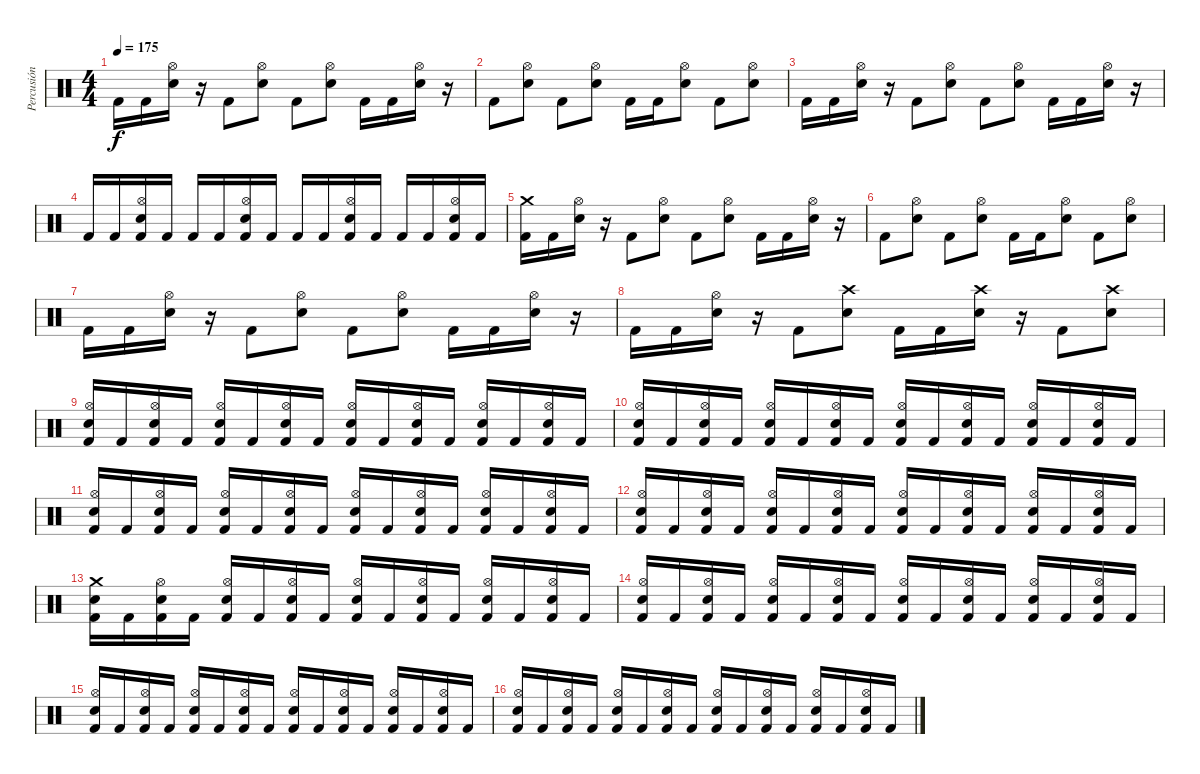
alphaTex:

\track ("Percusión" "Percusión") {instrument percussion}
\staff {score}
\articulation defaults
\ts (4 4)
\tempo 175
\clef neutral
\ks c "Kick (hit) 2".16{dy f} "Kick (hit) 2".16
("Hi-Hat (open)" "Electric Snare (hit)").16 r.16 "Kick (hit) 2".8 ("Hi-Hat (open)" "Electric Snare (hit)").8 "Kick (hit) 2".8 ("Hi-Hat (open)" "Electric Snare (hit)").8 "Kick (hit) 2".16 "Kick (hit) 2".16 ("Hi-Hat (open)" "Electric Snare (hit)").16 r.16 |
"Kick (hit) 2".8 ("Hi-Hat (open)" "Electric Snare (hit)").8 "Kick (hit) 2".8 ("Hi-Hat (open)" "Electric Snare (hit)").8 "Kick (hit) 2".16 "Kick (hit) 2".16 ("Hi-Hat (open)" "Electric Snare (hit)").8 "Kick (hit) 2".8 ("Hi-Hat (open)" "Electric Snare (hit)").8 |
"Kick (hit) 2".16 "Kick (hit) 2".16 ("Hi-Hat (open)" "Electric Snare (hit)").16 r.16 "Kick (hit) 2".8 ("Hi-Hat (open)" "Electric Snare (hit)").8 "Kick (hit) 2".8 ("Hi-Hat (open)" "Electric Snare (hit)").8 "Kick (hit) 2".16 "Kick (hit) 2".16 ("Hi-Hat (open)" "Electric Snare (hit)").16 r.16 |
"Kick (hit) 2".16 "Kick (hit) 2".16 ("Hi-Hat (open)" "Electric Snare (hit)" "Kick (hit) 2").16 "Kick (hit) 2".16 "Kick (hit) 2".16 "Kick (hit) 2".16 ("Hi-Hat (open)" "Electric Snare (hit)" "Kick (hit) 2").16 "Kick (hit) 2".16 "Kick (hit) 2".16 "Kick (hit) 2".16 ("Hi-Hat (open)" "Electric Snare (hit)" "Kick (hit) 2").16 "Kick (hit) 2".16 "Kick (hit) 2".16 "Kick (hit) 2".16 ("Hi-Hat (open)" "Electric Snare (hit)" "Kick (hit) 2").16 "Kick (hit) 2".16 |
("Crash medium (hit)" "Kick (hit) 2").16 "Kick (hit) 2".16 ("Hi-Hat (open)" "Electric Snare (hit)").16 r.16 "Kick (hit) 2".8 ("Hi-Hat (open)" "Electric Snare (hit)").8 "Kick (hit) 2".8 ("Hi-Hat (open)" "Electric Snare (hit)").8 "Kick (hit) 2".16 "Kick (hit) 2".16 ("Hi-Hat (open)" "Electric Snare (hit)").16 r.16 |
"Kick (hit) 2".8 ("Hi-Hat (open)" "Electric Snare (hit)").8 "Kick (hit) 2".8 ("Hi-Hat (open)" "Electric Snare (hit)").8 "Kick (hit) 2".16 "Kick (hit) 2".16 ("Hi-Hat (open)" "Electric Snare (hit)").8 "Kick (hit) 2".8 ("Hi-Hat (open)" "Electric Snare (hit)").8 |
"Kick (hit) 2".16 "Kick (hit) 2".16 ("Hi-Hat (open)" "Electric Snare (hit)").16 r.16 "Kick (hit) 2".8 ("Hi-Hat (open)" "Electric Snare (hit)").8 "Kick (hit) 2".8 ("Hi-Hat (open)" "Electric Snare (hit)").8 "Kick (hit) 2".16 "Kick (hit) 2".16 ("Hi-Hat (open)" "Electric Snare (hit)").16 r.16 |
"Kick (hit) 2".16 "Kick (hit) 2".16 ("Hi-Hat (open)" "Electric Snare (hit)").16 r.16 "Kick (hit) 2".8 ("Crash high (hit)" "Electric Snare (hit)").8 "Kick (hit) 2".16 "Kick (hit) 2".16 ("Crash high (hit)" "Electric Snare (hit)").16 r.16 "Kick (hit) 2".8 ("Crash high (hit)" "Electric Snare (hit)").8 |
("Hi-Hat (open)" "Electric Snare (hit)" "Kick (hit) 2").16 "Kick (hit) 2".16 ("Hi-Hat (open)" "Electric Snare (hit)" "Kick (hit) 2").16 "Kick (hit) 2".16 ("Hi-Hat (open)" "Electric Snare (hit)" "Kick (hit) 2").16 "Kick (hit) 2".16 ("Hi-Hat (open)" "Electric Snare (hit)" "Kick (hit) 2").16 "Kick (hit) 2".16 ("Hi-Hat (open)" "Electric Snare (hit)" "Kick (hit) 2").16 "Kick (hit) 2".16 ("Hi-Hat (open)" "Electric Snare (hit)" "Kick (hit) 2").16 "Kick (hit) 2".16 ("Hi-Hat (open)" "Electric Snare (hit)" "Kick (hit) 2").16 "Kick (hit) 2".16 ("Hi-Hat (open)" "Electric Snare (hit)" "Kick (hit) 2").16 "Kick (hit) 2".16 |
("Hi-Hat (open)" "Electric Snare (hit)" "Kick (hit) 2").16 "Kick (hit) 2".16 ("Hi-Hat (open)" "Electric Snare (hit)" "Kick (hit) 2").16 "Kick (hit) 2".16 ("Hi-Hat (open)" "Electric Snare (hit)" "Kick (hit) 2").16 "Kick (hit) 2".16 ("Hi-Hat (open)" "Electric Snare (hit)" "Kick (hit) 2").16 "Kick (hit) 2".16 ("Hi-Hat (open)" "Electric Snare (hit)" "Kick (hit) 2").16 "Kick (hit) 2".16 ("Hi-Hat (open)" "Electric Snare (hit)" "Kick (hit) 2").16 "Kick (hit) 2".16 ("Hi-Hat (open)" "Electric Snare (hit)" "Kick (hit) 2").16 "Kick (hit) 2".16 ("Hi-Hat (open)" "Electric Snare (hit)" "Kick (hit) 2").16 "Kick (hit) 2".16 |
("Hi-Hat (open)" "Electric Snare (hit)" "Kick (hit) 2").16 "Kick (hit) 2".16 ("Hi-Hat (open)" "Electric Snare (hit)" "Kick (hit) 2").16 "Kick (hit) 2".16 ("Hi-Hat (open)" "Electric Snare (hit)" "Kick (hit) 2").16 "Kick (hit) 2".16 ("Hi-Hat (open)" "Electric Snare (hit)" "Kick (hit) 2").16 "Kick (hit) 2".16 ("Hi-Hat (open)" "Electric Snare (hit)" "Kick (hit) 2").16 "Kick (hit) 2".16 ("Hi-Hat (open)" "Electric Snare (hit)" "Kick (hit) 2").16 "Kick (hit) 2".16 ("Hi-Hat (open)" "Electric Snare (hit)" "Kick (hit) 2").16 "Kick (hit) 2".16 ("Hi-Hat (open)" "Electric Snare (hit)" "Kick (hit) 2").16 "Kick (hit) 2".16 |
("Hi-Hat (open)" "Electric Snare (hit)" "Kick (hit) 2").16 "Kick (hit) 2".16 ("Hi-Hat (open)" "Electric Snare (hit)" "Kick (hit) 2").16 "Kick (hit) 2".16 ("Hi-Hat (open)" "Electric Snare (hit)" "Kick (hit) 2").16 "Kick (hit) 2".16 ("Hi-Hat (open)" "Electric Snare (hit)" "Kick (hit) 2").16 "Kick (hit) 2".16 ("Hi-Hat (open)" "Electric Snare (hit)" "Kick (hit) 2").16 "Kick (hit) 2".16 ("Hi-Hat (open)" "Electric Snare (hit)" "Kick (hit) 2").16 "Kick (hit) 2".16 ("Hi-Hat (open)" "Electric Snare (hit)" "Kick (hit) 2").16 "Kick (hit) 2".16 ("Hi-Hat (open)" "Electric Snare (hit)" "Kick (hit) 2").16 "Kick (hit) 2".16 |
("Crash medium (hit)" "Electric Snare (hit)" "Kick (hit) 2").16 "Kick (hit) 2".16 ("Hi-Hat (open)" "Electric Snare (hit)" "Kick (hit) 2").16 "Kick (hit) 2".16 ("Hi-Hat (open)" "Electric Snare (hit)" "Kick (hit) 2").16 "Kick (hit) 2".16 ("Hi-Hat (open)" "Electric Snare (hit)" "Kick (hit) 2").16 "Kick (hit) 2".16 ("Hi-Hat (open)" "Electric Snare (hit)" "Kick (hit) 2").16 "Kick (hit) 2".16 ("Hi-Hat (open)" "Electric Snare (hit)" "Kick (hit) 2").16 "Kick (hit) 2".16 ("Hi-Hat (open)" "Electric Snare (hit)" "Kick (hit) 2").16 "Kick (hit) 2".16 ("Hi-Hat (open)" "Electric Snare (hit)" "Kick (hit) 2").16 "Kick (hit) 2".16 |
("Hi-Hat (open)" "Electric Snare (hit)" "Kick (hit) 2").16 "Kick (hit) 2".16 ("Hi-Hat (open)" "Electric Snare (hit)" "Kick (hit) 2").16 "Kick (hit) 2".16 ("Hi-Hat (open)" "Electric Snare (hit)" "Kick (hit) 2").16 "Kick (hit) 2".16 ("Hi-Hat (open)" "Electric Snare (hit)" "Kick (hit) 2").16 "Kick (hit) 2".16 ("Hi-Hat (open)" "Electric Snare (hit)" "Kick (hit) 2").16 "Kick (hit) 2".16 ("Hi-Hat (open)" "Electric Snare (hit)" "Kick (hit) 2").16 "Kick (hit) 2".16 ("Hi-Hat (open)" "Electric Snare (hit)" "Kick (hit) 2").16 "Kick (hit) 2".16 ("Hi-Hat (open)" "Electric Snare (hit)" "Kick (hit) 2").16 "Kick (hit) 2".16 |
("Hi-Hat (open)" "Electric Snare (hit)" "Kick (hit) 2").16 "Kick (hit) 2".16 ("Hi-Hat (open)" "Electric Snare (hit)" "Kick (hit) 2").16 "Kick (hit) 2".16 ("Hi-Hat (open)" "Electric Snare (hit)" "Kick (hit) 2").16 "Kick (hit) 2".16 ("Hi-Hat (open)" "Electric Snare (hit)" "Kick (hit) 2").16 "Kick (hit) 2".16 ("Hi-Hat (open)" "Electric Snare (hit)" "Kick (hit) 2").16 "Kick (hit) 2".16 ("Hi-Hat (open)" "Electric Snare (hit)" "Kick (hit) 2").16 "Kick (hit) 2".16 ("Hi-Hat (open)" "Electric Snare (hit)" "Kick (hit) 2").16 "Kick (hit) 2".16 ("Hi-Hat (open)" "Electric Snare (hit)" "Kick (hit) 2").16 "Kick (hit) 2".16 |
("Hi-Hat (open)" "Electric Snare (hit)" "Kick (hit) 2").16 "Kick (hit) 2".16 ("Hi-Hat (open)" "Electric Snare (hit)" "Kick (hit) 2").16 "Kick (hit) 2".16 ("Hi-Hat (open)" "Electric Snare (hit)" "Kick (hit) 2").16 "Kick (hit) 2".16 ("Hi-Hat (open)" "Electric Snare (hit)" "Kick (hit) 2").16 "Kick (hit) 2".16 ("Hi-Hat (open)" "Electric Snare (hit)" "Kick (hit) 2").16 "Kick (hit) 2".16 ("Hi-Hat (open)" "Electric Snare (hit)" "Kick (hit) 2").16 "Kick (hit) 2".16 ("Hi-Hat (open)" "Electric Snare (hit)" "Kick (hit) 2").16 "Kick (hit) 2".16 ("Hi-Hat (open)" "Electric Snare (hit)" "Kick (hit) 2").16 "Kick (hit) 2".16
